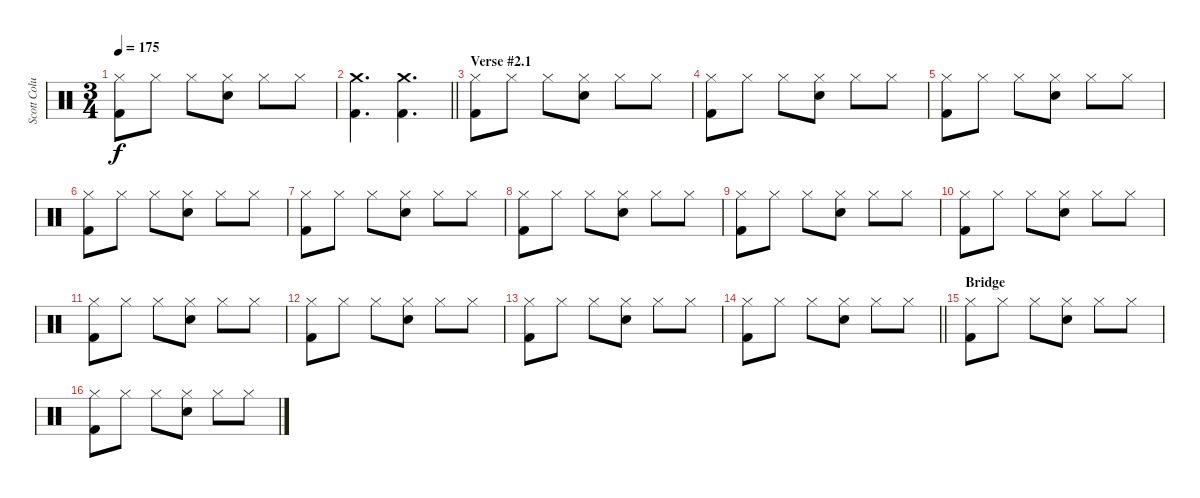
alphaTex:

\track ("Scott Columbus" "Scott Colu") {instrument percussion}
\staff {score}
\articulation defaults
\ts (3 4)
\tempo 175
\clef neutral
\ks c
("Kick (hit) 2" "Hi-Hat (closed)").8{dy f} "Hi-Hat (closed)".8 "Hi-Hat (closed)".8 ("Snare (hit) 2" "Hi-Hat (closed)").8 "Hi-Hat (closed)".8 "Hi-Hat (closed)".8 |
\barLineRight lightlight
("Kick (hit) 2" "Crash medium (hit)").4{d} ("Kick (hit) 2" "Crash medium (hit)").4{d} |
\section ("" "Verse #2.1")
("Kick (hit) 2" "Hi-Hat (closed)").8 "Hi-Hat (closed)".8 "Hi-Hat (closed)".8 ("Snare (hit) 2" "Hi-Hat (closed)").8 "Hi-Hat (closed)".8 "Hi-Hat (closed)".8 |
("Kick (hit) 2" "Hi-Hat (closed)").8 "Hi-Hat (closed)".8 "Hi-Hat (closed)".8 ("Snare (hit) 2" "Hi-Hat (closed)").8 "Hi-Hat (closed)".8 "Hi-Hat (closed)".8 |
("Kick (hit) 2" "Hi-Hat (closed)").8 "Hi-Hat (closed)".8 "Hi-Hat (closed)".8 ("Snare (hit) 2" "Hi-Hat (closed)").8 "Hi-Hat (closed)".8 "Hi-Hat (closed)".8 |
("Kick (hit) 2" "Hi-Hat (closed)").8 "Hi-Hat (closed)".8 "Hi-Hat (closed)".8 ("Snare (hit) 2" "Hi-Hat (closed)").8 "Hi-Hat (closed)".8 "Hi-Hat (closed)".8 |
("Kick (hit) 2" "Hi-Hat (closed)").8 "Hi-Hat (closed)".8 "Hi-Hat (closed)".8 ("Snare (hit) 2" "Hi-Hat (closed)").8 "Hi-Hat (closed)".8 "Hi-Hat (closed)".8 |
("Kick (hit) 2" "Hi-Hat (closed)").8 "Hi-Hat (closed)".8 "Hi-Hat (closed)".8 ("Snare (hit) 2" "Hi-Hat (closed)").8 "Hi-Hat (closed)".8 "Hi-Hat (closed)".8 |
("Kick (hit) 2" "Hi-Hat (closed)").8 "Hi-Hat (closed)".8 "Hi-Hat (closed)".8 ("Snare (hit) 2" "Hi-Hat (closed)").8 "Hi-Hat (closed)".8 "Hi-Hat (closed)".8 |
("Kick (hit) 2" "Hi-Hat (closed)").8 "Hi-Hat (closed)".8 "Hi-Hat (closed)".8 ("Snare (hit) 2" "Hi-Hat (closed)").8 "Hi-Hat (closed)".8 "Hi-Hat (closed)".8 |
("Kick (hit) 2" "Hi-Hat (closed)").8 "Hi-Hat (closed)".8 "Hi-Hat (closed)".8 ("Snare (hit) 2" "Hi-Hat (closed)").8 "Hi-Hat (closed)".8 "Hi-Hat (closed)".8 |
("Kick (hit) 2" "Hi-Hat (closed)").8 "Hi-Hat (closed)".8 "Hi-Hat (closed)".8 ("Snare (hit) 2" "Hi-Hat (closed)").8 "Hi-Hat (closed)".8 "Hi-Hat (closed)".8 |
("Kick (hit) 2" "Hi-Hat (closed)").8 "Hi-Hat (closed)".8 "Hi-Hat (closed)".8 ("Snare (hit) 2" "Hi-Hat (closed)").8 "Hi-Hat (closed)".8 "Hi-Hat (closed)".8 |
\barLineRight lightlight
("Kick (hit) 2" "Hi-Hat (closed)").8 "Hi-Hat (closed)".8 "Hi-Hat (closed)".8 ("Snare (hit) 2" "Hi-Hat (closed)").8 "Hi-Hat (closed)".8 "Hi-Hat (closed)".8 |
\section ("" "Bridge")
("Kick (hit) 2" "Hi-Hat (closed)").8 "Hi-Hat (closed)".8 "Hi-Hat (closed)".8 ("Snare (hit) 2" "Hi-Hat (closed)").8 "Hi-Hat (closed)".8 "Hi-Hat (closed)".8 |
("Kick (hit) 2" "Hi-Hat (closed)").8 "Hi-Hat (closed)".8 "Hi-Hat (closed)".8 ("Snare (hit) 2" "Hi-Hat (closed)").8 "Hi-Hat (closed)".8 "Hi-Hat (closed)".8
